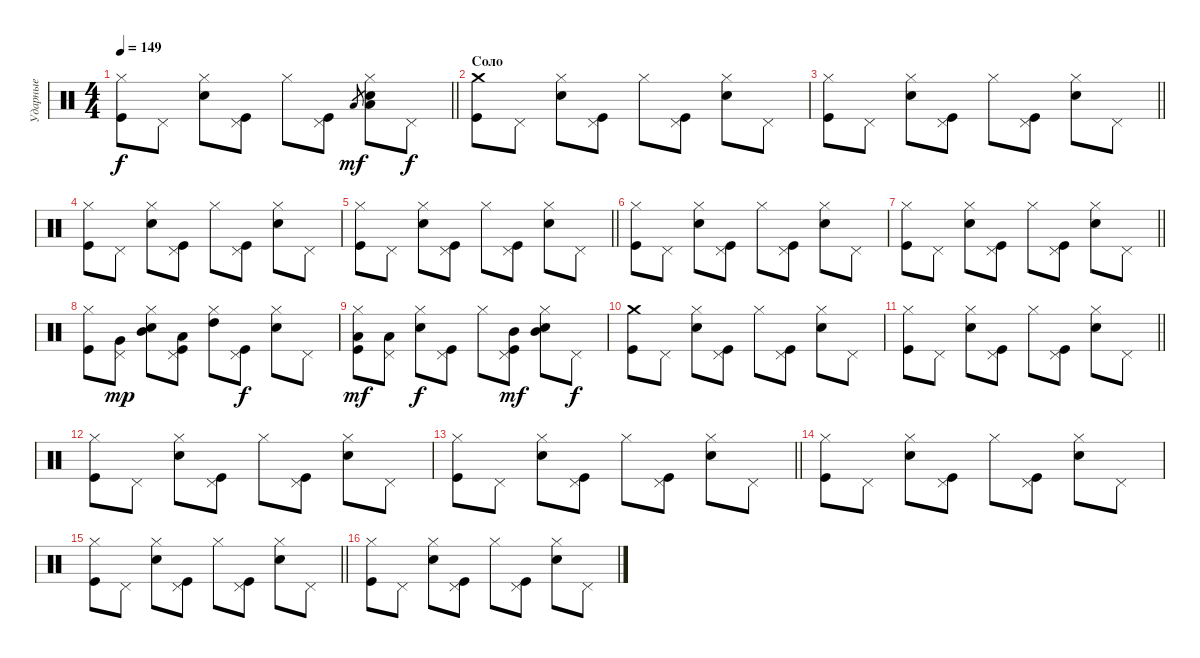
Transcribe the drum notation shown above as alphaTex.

\track ("Ударные" "Ударные") {instrument percussion}
\staff {score}
\articulation defaults
\ts (4 4)
\tempo 149
\clef neutral
\barLineRight lightlight
\ks c
("Hi-Hat (closed)" "Kick (hit)").8{dy f} "Pedal Hi-Hat (hit)".8 ("Hi-Hat (closed)" "Snare (hit) 2").8 ("Pedal Hi-Hat (hit)" "Kick (hit)").8 "Hi-Hat (closed)".8 ("Pedal Hi-Hat (hit)" "Kick (hit)").8 "Low Tom (hit)".8{gr dy mf} ("Hi-Hat (closed)" "Snare (hit) 2" "Low Tom (hit)").8 "Pedal Hi-Hat (hit)".8{dy f} |
\section ("" "Соло")
("Crash medium (hit)" "Kick (hit)").8 "Pedal Hi-Hat (hit)".8 ("Hi-Hat (closed)" "Snare (hit) 2").8 ("Pedal Hi-Hat (hit)" "Kick (hit)").8 "Hi-Hat (closed)".8 ("Pedal Hi-Hat (hit)" "Kick (hit)").8 ("Hi-Hat (closed)" "Snare (hit) 2").8 "Pedal Hi-Hat (hit)".8 |
\barLineRight lightlight
("Hi-Hat (closed)" "Kick (hit)").8 "Pedal Hi-Hat (hit)".8 ("Hi-Hat (closed)" "Snare (hit) 2").8 ("Pedal Hi-Hat (hit)" "Kick (hit)").8 "Hi-Hat (closed)".8 ("Pedal Hi-Hat (hit)" "Kick (hit)").8 ("Hi-Hat (closed)" "Snare (hit) 2").8 "Pedal Hi-Hat (hit)".8 |
("Hi-Hat (closed)" "Kick (hit)").8 "Pedal Hi-Hat (hit)".8 ("Hi-Hat (closed)" "Snare (hit) 2").8 ("Pedal Hi-Hat (hit)" "Kick (hit)").8 "Hi-Hat (closed)".8 ("Pedal Hi-Hat (hit)" "Kick (hit)").8 ("Hi-Hat (closed)" "Snare (hit) 2").8 "Pedal Hi-Hat (hit)".8 |
\barLineRight lightlight
("Hi-Hat (closed)" "Kick (hit)").8 "Pedal Hi-Hat (hit)".8 ("Hi-Hat (closed)" "Snare (hit) 2").8 ("Pedal Hi-Hat (hit)" "Kick (hit)").8 "Hi-Hat (closed)".8 ("Pedal Hi-Hat (hit)" "Kick (hit)").8 ("Hi-Hat (closed)" "Snare (hit) 2").8 "Pedal Hi-Hat (hit)".8 |
("Hi-Hat (closed)" "Kick (hit)").8 "Pedal Hi-Hat (hit)".8 ("Hi-Hat (closed)" "Snare (hit) 2").8 ("Pedal Hi-Hat (hit)" "Kick (hit)").8 "Hi-Hat (closed)".8 ("Pedal Hi-Hat (hit)" "Kick (hit)").8 ("Hi-Hat (closed)" "Snare (hit) 2").8 "Pedal Hi-Hat (hit)".8 |
\barLineRight lightlight
("Hi-Hat (closed)" "Kick (hit)").8 "Pedal Hi-Hat (hit)".8 ("Hi-Hat (closed)" "Snare (hit) 2").8 ("Pedal Hi-Hat (hit)" "Kick (hit)").8 "Hi-Hat (closed)".8 ("Pedal Hi-Hat (hit)" "Kick (hit)").8 ("Hi-Hat (closed)" "Snare (hit) 2").8 "Pedal Hi-Hat (hit)".8 |
("Hi-Hat (closed)" "Kick (hit)").8 ("Pedal Hi-Hat (hit)" "Very Low Tom (hit)").8{dy mp} ("Hi-Hat (closed)" "Snare (hit) 2" "Mid Tom (hit)").8 ("Pedal Hi-Hat (hit)" "Kick (hit)" "Low Tom (hit)").8 ("Hi-Hat (closed)" "High Tom (hit)").8 ("Pedal Hi-Hat (hit)" "Kick (hit)").8{dy f} ("Hi-Hat (closed)" "Snare (hit) 2").8 "Pedal Hi-Hat (hit)".8 |
("Hi-Hat (closed)" "Kick (hit)" "Low Floor Tom (hit)").8{dy mf} ("Pedal Hi-Hat (hit)" "Low Floor Tom (hit)").8 ("Hi-Hat (closed)" "Snare (hit) 2").8{dy f} ("Pedal Hi-Hat (hit)" "Kick (hit)").8 "Hi-Hat (closed)".8 ("Pedal Hi-Hat (hit)" "Kick (hit)" "Mid Tom (hit)").8{dy mf} ("Hi-Hat (closed)" "Snare (hit) 2" "Mid Tom (hit)").8 "Pedal Hi-Hat (hit)".8{dy f} |
("Crash medium (hit)" "Kick (hit)").8 "Pedal Hi-Hat (hit)".8 ("Hi-Hat (closed)" "Snare (hit) 2").8 ("Pedal Hi-Hat (hit)" "Kick (hit)").8 "Hi-Hat (closed)".8 ("Pedal Hi-Hat (hit)" "Kick (hit)").8 ("Hi-Hat (closed)" "Snare (hit) 2").8 "Pedal Hi-Hat (hit)".8 |
\barLineRight lightlight
("Hi-Hat (closed)" "Kick (hit)").8 "Pedal Hi-Hat (hit)".8 ("Hi-Hat (closed)" "Snare (hit) 2").8 ("Pedal Hi-Hat (hit)" "Kick (hit)").8 "Hi-Hat (closed)".8 ("Pedal Hi-Hat (hit)" "Kick (hit)").8 ("Hi-Hat (closed)" "Snare (hit) 2").8 "Pedal Hi-Hat (hit)".8 |
("Hi-Hat (closed)" "Kick (hit)").8 "Pedal Hi-Hat (hit)".8 ("Hi-Hat (closed)" "Snare (hit) 2").8 ("Pedal Hi-Hat (hit)" "Kick (hit)").8 "Hi-Hat (closed)".8 ("Pedal Hi-Hat (hit)" "Kick (hit)").8 ("Hi-Hat (closed)" "Snare (hit) 2").8 "Pedal Hi-Hat (hit)".8 |
\barLineRight lightlight
("Hi-Hat (closed)" "Kick (hit)").8 "Pedal Hi-Hat (hit)".8 ("Hi-Hat (closed)" "Snare (hit) 2").8 ("Pedal Hi-Hat (hit)" "Kick (hit)").8 "Hi-Hat (closed)".8 ("Pedal Hi-Hat (hit)" "Kick (hit)").8 ("Hi-Hat (closed)" "Snare (hit) 2").8 "Pedal Hi-Hat (hit)".8 |
("Hi-Hat (closed)" "Kick (hit)").8 "Pedal Hi-Hat (hit)".8 ("Hi-Hat (closed)" "Snare (hit) 2").8 ("Pedal Hi-Hat (hit)" "Kick (hit)").8 "Hi-Hat (closed)".8 ("Pedal Hi-Hat (hit)" "Kick (hit)").8 ("Hi-Hat (closed)" "Snare (hit) 2").8 "Pedal Hi-Hat (hit)".8 |
\barLineRight lightlight
("Hi-Hat (closed)" "Kick (hit)").8 "Pedal Hi-Hat (hit)".8 ("Hi-Hat (closed)" "Snare (hit) 2").8 ("Pedal Hi-Hat (hit)" "Kick (hit)").8 "Hi-Hat (closed)".8 ("Pedal Hi-Hat (hit)" "Kick (hit)").8 ("Hi-Hat (closed)" "Snare (hit) 2").8 "Pedal Hi-Hat (hit)".8 |
("Hi-Hat (closed)" "Kick (hit)").8 "Pedal Hi-Hat (hit)".8 ("Hi-Hat (closed)" "Snare (hit) 2").8 ("Pedal Hi-Hat (hit)" "Kick (hit)").8 "Hi-Hat (closed)".8 ("Pedal Hi-Hat (hit)" "Kick (hit)").8 ("Hi-Hat (closed)" "Snare (hit) 2").8 "Pedal Hi-Hat (hit)".8
